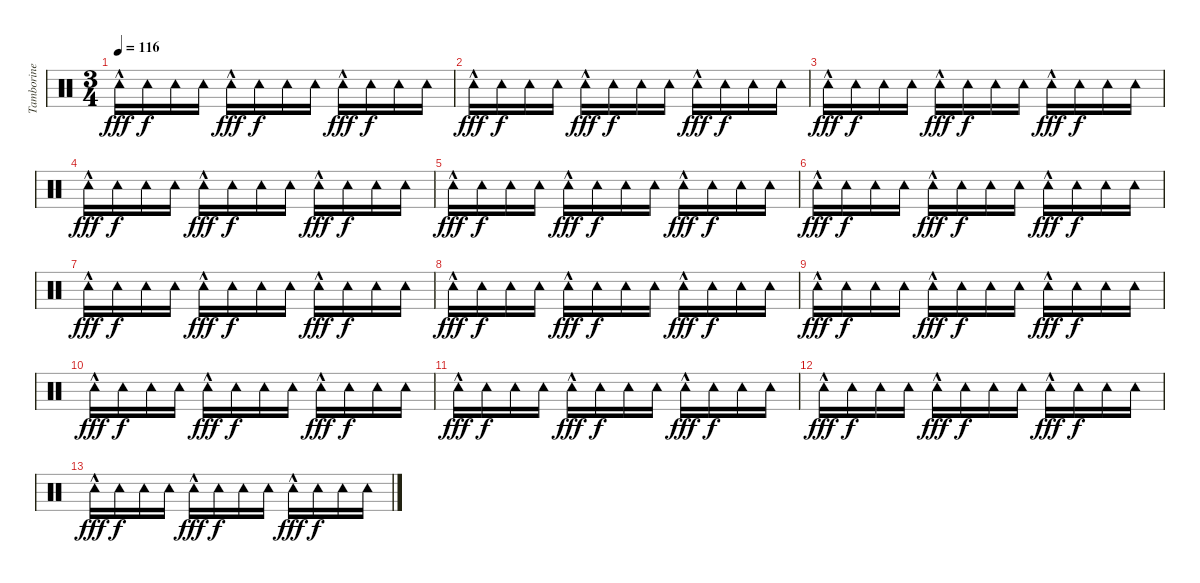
\track ("Tamborine" "Tamborine") {instrument percussion}
\staff {score}
\articulation defaults
\ts (3 4)
\tempo 116
\clef neutral
\ks c "Tambourine (hit)"{hac}.16{dy fff} "Tambourine (hit)".16{dy f} "Tambourine (hit)".16 "Tambourine (hit)".16 "Tambourine (hit)"{hac}.16{dy fff} "Tambourine (hit)".16{dy f} "Tambourine (hit)".16 "Tambourine (hit)".16 "Tambourine (hit)"{hac}.16{dy fff} "Tambourine (hit)".16{dy f} "Tambourine (hit)".16 "Tambourine (hit)".16
|
"Tambourine (hit)"{hac}.16{dy fff} "Tambourine (hit)".16{dy f} "Tambourine (hit)".16 "Tambourine (hit)".16 "Tambourine (hit)"{hac}.16{dy fff} "Tambourine (hit)".16{dy f} "Tambourine (hit)".16 "Tambourine (hit)".16 "Tambourine (hit)"{hac}.16{dy fff} "Tambourine (hit)".16{dy f} "Tambourine (hit)".16 "Tambourine (hit)".16 |
"Tambourine (hit)"{hac}.16{dy fff} "Tambourine (hit)".16{dy f} "Tambourine (hit)".16 "Tambourine (hit)".16 "Tambourine (hit)"{hac}.16{dy fff} "Tambourine (hit)".16{dy f} "Tambourine (hit)".16 "Tambourine (hit)".16 "Tambourine (hit)"{hac}.16{dy fff} "Tambourine (hit)".16{dy f} "Tambourine (hit)".16 "Tambourine (hit)".16 |
"Tambourine (hit)"{hac}.16{dy fff} "Tambourine (hit)".16{dy f} "Tambourine (hit)".16 "Tambourine (hit)".16 "Tambourine (hit)"{hac}.16{dy fff} "Tambourine (hit)".16{dy f} "Tambourine (hit)".16 "Tambourine (hit)".16 "Tambourine (hit)"{hac}.16{dy fff} "Tambourine (hit)".16{dy f} "Tambourine (hit)".16 "Tambourine (hit)".16 |
"Tambourine (hit)"{hac}.16{dy fff} "Tambourine (hit)".16{dy f} "Tambourine (hit)".16 "Tambourine (hit)".16 "Tambourine (hit)"{hac}.16{dy fff} "Tambourine (hit)".16{dy f} "Tambourine (hit)".16 "Tambourine (hit)".16 "Tambourine (hit)"{hac}.16{dy fff} "Tambourine (hit)".16{dy f} "Tambourine (hit)".16 "Tambourine (hit)".16 |
"Tambourine (hit)"{hac}.16{dy fff} "Tambourine (hit)".16{dy f} "Tambourine (hit)".16 "Tambourine (hit)".16 "Tambourine (hit)"{hac}.16{dy fff} "Tambourine (hit)".16{dy f} "Tambourine (hit)".16 "Tambourine (hit)".16 "Tambourine (hit)"{hac}.16{dy fff} "Tambourine (hit)".16{dy f} "Tambourine (hit)".16 "Tambourine (hit)".16 |
"Tambourine (hit)"{hac}.16{dy fff} "Tambourine (hit)".16{dy f} "Tambourine (hit)".16 "Tambourine (hit)".16 "Tambourine (hit)"{hac}.16{dy fff} "Tambourine (hit)".16{dy f} "Tambourine (hit)".16 "Tambourine (hit)".16 "Tambourine (hit)"{hac}.16{dy fff} "Tambourine (hit)".16{dy f} "Tambourine (hit)".16 "Tambourine (hit)".16 |
"Tambourine (hit)"{hac}.16{dy fff} "Tambourine (hit)".16{dy f} "Tambourine (hit)".16 "Tambourine (hit)".16 "Tambourine (hit)"{hac}.16{dy fff} "Tambourine (hit)".16{dy f} "Tambourine (hit)".16 "Tambourine (hit)".16 "Tambourine (hit)"{hac}.16{dy fff} "Tambourine (hit)".16{dy f} "Tambourine (hit)".16 "Tambourine (hit)".16 |
"Tambourine (hit)"{hac}.16{dy fff} "Tambourine (hit)".16{dy f} "Tambourine (hit)".16 "Tambourine (hit)".16 "Tambourine (hit)"{hac}.16{dy fff} "Tambourine (hit)".16{dy f} "Tambourine (hit)".16 "Tambourine (hit)".16 "Tambourine (hit)"{hac}.16{dy fff} "Tambourine (hit)".16{dy f} "Tambourine (hit)".16 "Tambourine (hit)".16 |
"Tambourine (hit)"{hac}.16{dy fff} "Tambourine (hit)".16{dy f} "Tambourine (hit)".16 "Tambourine (hit)".16 "Tambourine (hit)"{hac}.16{dy fff} "Tambourine (hit)".16{dy f} "Tambourine (hit)".16 "Tambourine (hit)".16 "Tambourine (hit)"{hac}.16{dy fff} "Tambourine (hit)".16{dy f} "Tambourine (hit)".16 "Tambourine (hit)".16 |
"Tambourine (hit)"{hac}.16{dy fff} "Tambourine (hit)".16{dy f} "Tambourine (hit)".16 "Tambourine (hit)".16 "Tambourine (hit)"{hac}.16{dy fff} "Tambourine (hit)".16{dy f} "Tambourine (hit)".16 "Tambourine (hit)".16 "Tambourine (hit)"{hac}.16{dy fff} "Tambourine (hit)".16{dy f} "Tambourine (hit)".16 "Tambourine (hit)".16 |
"Tambourine (hit)"{hac}.16{dy fff} "Tambourine (hit)".16{dy f} "Tambourine (hit)".16 "Tambourine (hit)".16 "Tambourine (hit)"{hac}.16{dy fff} "Tambourine (hit)".16{dy f} "Tambourine (hit)".16 "Tambourine (hit)".16 "Tambourine (hit)"{hac}.16{dy fff} "Tambourine (hit)".16{dy f} "Tambourine (hit)".16 "Tambourine (hit)".16 |
"Tambourine (hit)"{hac}.16{dy fff} "Tambourine (hit)".16{dy f} "Tambourine (hit)".16 "Tambourine (hit)".16 "Tambourine (hit)"{hac}.16{dy fff} "Tambourine (hit)".16{dy f} "Tambourine (hit)".16 "Tambourine (hit)".16 "Tambourine (hit)"{hac}.16{dy fff} "Tambourine (hit)".16{dy f} "Tambourine (hit)".16 "Tambourine (hit)".16
